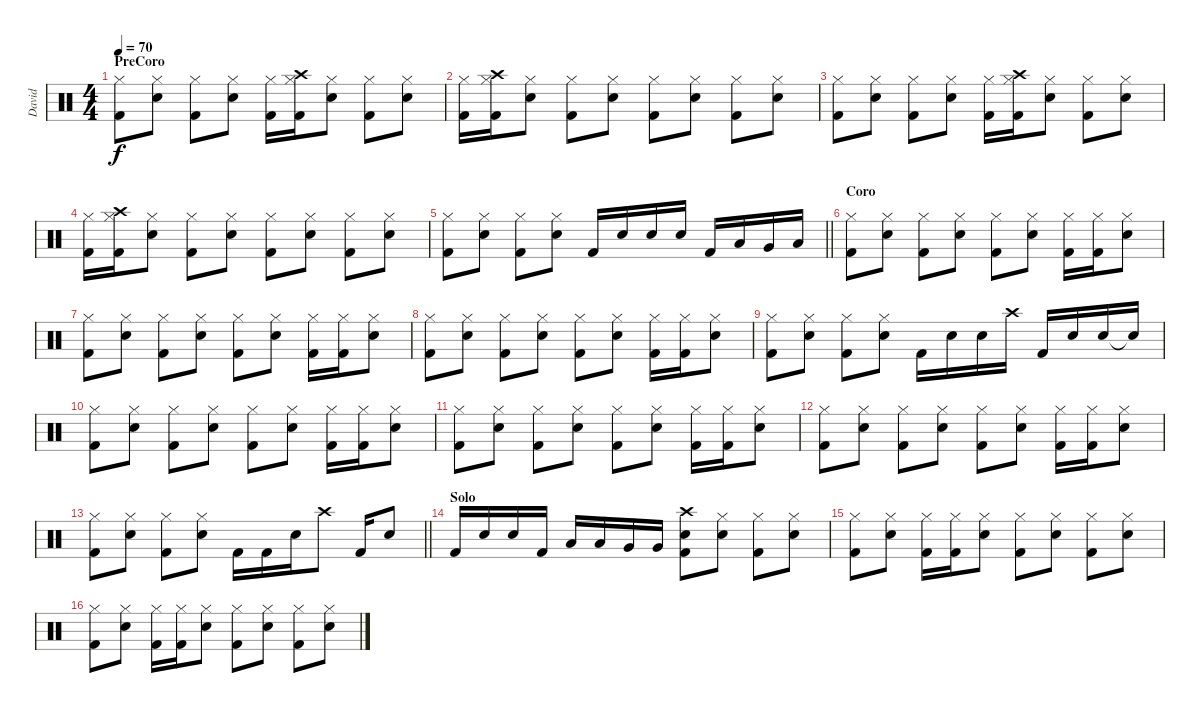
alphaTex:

\track ("David" "David") {instrument percussion}
\staff {score}
\articulation defaults
\ts (4 4)
\section ("" "PreCoro")
\tempo 70
\clef neutral
\ks c
("Kick (hit) 2" "Hi-Hat (closed)").8{dy f} ("Snare (hit) 2" "Hi-Hat (closed)").8 ("Kick (hit) 2" "Hi-Hat (closed)").8 ("Snare (hit) 2" "Hi-Hat (closed)").8 ("Kick (hit) 2" "Hi-Hat (closed)").16 ("Kick (hit) 2" "Hi-Hat (closed)" "Crash high (hit)").16 ("Snare (hit) 2" "Hi-Hat (closed)").8 ("Kick (hit) 2" "Hi-Hat (closed)").8 ("Snare (hit) 2" "Hi-Hat (closed)").8 |
("Kick (hit) 2" "Hi-Hat (closed)").16 ("Kick (hit) 2" "Hi-Hat (closed)" "Crash high (hit)").16 ("Snare (hit) 2" "Hi-Hat (closed)").8 ("Kick (hit) 2" "Hi-Hat (closed)").8 ("Snare (hit) 2" "Hi-Hat (closed)").8 ("Kick (hit) 2" "Hi-Hat (closed)").8 ("Snare (hit) 2" "Hi-Hat (closed)").8 ("Kick (hit) 2" "Hi-Hat (closed)").8 ("Snare (hit) 2" "Hi-Hat (closed)").8 |
("Kick (hit) 2" "Hi-Hat (closed)").8 ("Snare (hit) 2" "Hi-Hat (closed)").8 ("Kick (hit) 2" "Hi-Hat (closed)").8 ("Snare (hit) 2" "Hi-Hat (closed)").8 ("Kick (hit) 2" "Hi-Hat (closed)").16 ("Kick (hit) 2" "Hi-Hat (closed)" "Crash high (hit)").16 ("Snare (hit) 2" "Hi-Hat (closed)").8 ("Kick (hit) 2" "Hi-Hat (closed)").8 ("Snare (hit) 2" "Hi-Hat (closed)").8 |
("Kick (hit) 2" "Hi-Hat (closed)").16 ("Kick (hit) 2" "Hi-Hat (closed)" "Crash high (hit)").16 ("Snare (hit) 2" "Hi-Hat (closed)").8 ("Kick (hit) 2" "Hi-Hat (closed)").8 ("Snare (hit) 2" "Hi-Hat (closed)").8 ("Kick (hit) 2" "Hi-Hat (closed)").8 ("Snare (hit) 2" "Hi-Hat (closed)").8 ("Kick (hit) 2" "Hi-Hat (closed)").8 ("Snare (hit) 2" "Hi-Hat (closed)").8 |
\barLineRight lightlight
("Kick (hit) 2" "Hi-Hat (closed)").8 ("Snare (hit) 2" "Hi-Hat (closed)").8 ("Kick (hit) 2" "Hi-Hat (closed)").8 ("Snare (hit) 2" "Hi-Hat (closed)").8 "Kick (hit) 2".16 "Snare (hit) 2".16 "Snare (hit) 2".16 "Snare (hit) 2".16 "Kick (hit) 2".16 "Low Floor Tom (hit)".16 "Very Low Tom (hit)".16 "Low Tom (hit)".16 |
\section ("" "Coro")
("Kick (hit) 2" "Hi-Hat (closed)").8 ("Snare (hit) 2" "Hi-Hat (closed)").8 ("Kick (hit) 2" "Hi-Hat (closed)").8 ("Snare (hit) 2" "Hi-Hat (closed)").8 ("Kick (hit) 2" "Hi-Hat (closed)").8 ("Snare (hit) 2" "Hi-Hat (closed)").8 ("Kick (hit) 2" "Hi-Hat (closed)").16 ("Kick (hit) 2" "Hi-Hat (closed)").16 ("Snare (hit) 2" "Hi-Hat (closed)").8 |
("Kick (hit) 2" "Hi-Hat (closed)").8 ("Snare (hit) 2" "Hi-Hat (closed)").8 ("Kick (hit) 2" "Hi-Hat (closed)").8 ("Snare (hit) 2" "Hi-Hat (closed)").8 ("Kick (hit) 2" "Hi-Hat (closed)").8 ("Snare (hit) 2" "Hi-Hat (closed)").8 ("Kick (hit) 2" "Hi-Hat (closed)").16 ("Kick (hit) 2" "Hi-Hat (closed)").16 ("Snare (hit) 2" "Hi-Hat (closed)").8 |
("Kick (hit) 2" "Hi-Hat (closed)").8 ("Snare (hit) 2" "Hi-Hat (closed)").8 ("Kick (hit) 2" "Hi-Hat (closed)").8 ("Snare (hit) 2" "Hi-Hat (closed)").8 ("Kick (hit) 2" "Hi-Hat (closed)").8 ("Snare (hit) 2" "Hi-Hat (closed)").8 ("Kick (hit) 2" "Hi-Hat (closed)").16 ("Kick (hit) 2" "Hi-Hat (closed)").16 ("Snare (hit) 2" "Hi-Hat (closed)").8 |
("Kick (hit) 2" "Hi-Hat (closed)").8 ("Snare (hit) 2" "Hi-Hat (closed)").8 ("Kick (hit) 2" "Hi-Hat (closed)").8 ("Snare (hit) 2" "Hi-Hat (closed)").8 "Kick (hit) 2".16 "Snare (hit) 2".16 "Snare (hit) 2".16 "Crash high (hit)".16 "Kick (hit) 2".16 "Snare (hit) 2".16 "Snare (hit) 2".16 "Snare (hit)"{t}.16 |
("Kick (hit) 2" "Hi-Hat (closed)").8 ("Snare (hit) 2" "Hi-Hat (closed)").8 ("Kick (hit) 2" "Hi-Hat (closed)").8 ("Snare (hit) 2" "Hi-Hat (closed)").8 ("Kick (hit) 2" "Hi-Hat (closed)").8 ("Snare (hit) 2" "Hi-Hat (closed)").8 ("Kick (hit) 2" "Hi-Hat (closed)").16 ("Kick (hit) 2" "Hi-Hat (closed)").16 ("Snare (hit) 2" "Hi-Hat (closed)").8 |
("Kick (hit) 2" "Hi-Hat (closed)").8 ("Snare (hit) 2" "Hi-Hat (closed)").8 ("Kick (hit) 2" "Hi-Hat (closed)").8 ("Snare (hit) 2" "Hi-Hat (closed)").8 ("Kick (hit) 2" "Hi-Hat (closed)").8 ("Snare (hit) 2" "Hi-Hat (closed)").8 ("Kick (hit) 2" "Hi-Hat (closed)").16 ("Kick (hit) 2" "Hi-Hat (closed)").16 ("Snare (hit) 2" "Hi-Hat (closed)").8 |
("Kick (hit) 2" "Hi-Hat (closed)").8 ("Snare (hit) 2" "Hi-Hat (closed)").8 ("Kick (hit) 2" "Hi-Hat (closed)").8 ("Snare (hit) 2" "Hi-Hat (closed)").8 ("Kick (hit) 2" "Hi-Hat (closed)").8 ("Snare (hit) 2" "Hi-Hat (closed)").8 ("Kick (hit) 2" "Hi-Hat (closed)").16 ("Kick (hit) 2" "Hi-Hat (closed)").16 ("Snare (hit) 2" "Hi-Hat (closed)").8 |
\barLineRight lightlight
("Kick (hit) 2" "Hi-Hat (closed)").8 ("Snare (hit) 2" "Hi-Hat (closed)").8 ("Kick (hit) 2" "Hi-Hat (closed)").8 ("Snare (hit) 2" "Hi-Hat (closed)").8 "Kick (hit) 2".16 "Kick (hit) 2".16 "Snare (hit) 2".16 "Crash high (hit)".8 "Kick (hit) 2".16 "Snare (hit) 2".8 |
\section ("" "Solo")
"Kick (hit) 2".16 "Snare (hit) 2".16 "Snare (hit) 2".16 "Kick (hit) 2".16 "Low Floor Tom (hit)".16 "Low Floor Tom (hit)".16 "Very Low Tom (hit)".16 "Very Low Tom (hit)".16 ("Kick (hit) 2" "Snare (hit) 2" "Crash high (hit)").8 ("Snare (hit) 2" "Hi-Hat (closed)").8 ("Kick (hit) 2" "Hi-Hat (closed)").8 ("Snare (hit) 2" "Hi-Hat (closed)").8 |
("Kick (hit) 2" "Hi-Hat (closed)").8 ("Snare (hit) 2" "Hi-Hat (closed)").8 ("Kick (hit) 2" "Hi-Hat (closed)").16 ("Kick (hit) 2" "Hi-Hat (closed)").16 ("Snare (hit) 2" "Hi-Hat (closed)").8 ("Kick (hit) 2" "Hi-Hat (closed)").8 ("Snare (hit) 2" "Hi-Hat (closed)").8 ("Kick (hit) 2" "Hi-Hat (closed)").8 ("Snare (hit) 2" "Hi-Hat (closed)").8 |
("Kick (hit) 2" "Hi-Hat (closed)").8 ("Snare (hit) 2" "Hi-Hat (closed)").8 ("Kick (hit) 2" "Hi-Hat (closed)").16 ("Kick (hit) 2" "Hi-Hat (closed)").16 ("Snare (hit) 2" "Hi-Hat (closed)").8 ("Kick (hit) 2" "Hi-Hat (closed)").8 ("Snare (hit) 2" "Hi-Hat (closed)").8 ("Kick (hit) 2" "Hi-Hat (closed)").8 ("Snare (hit) 2" "Hi-Hat (closed)").8
